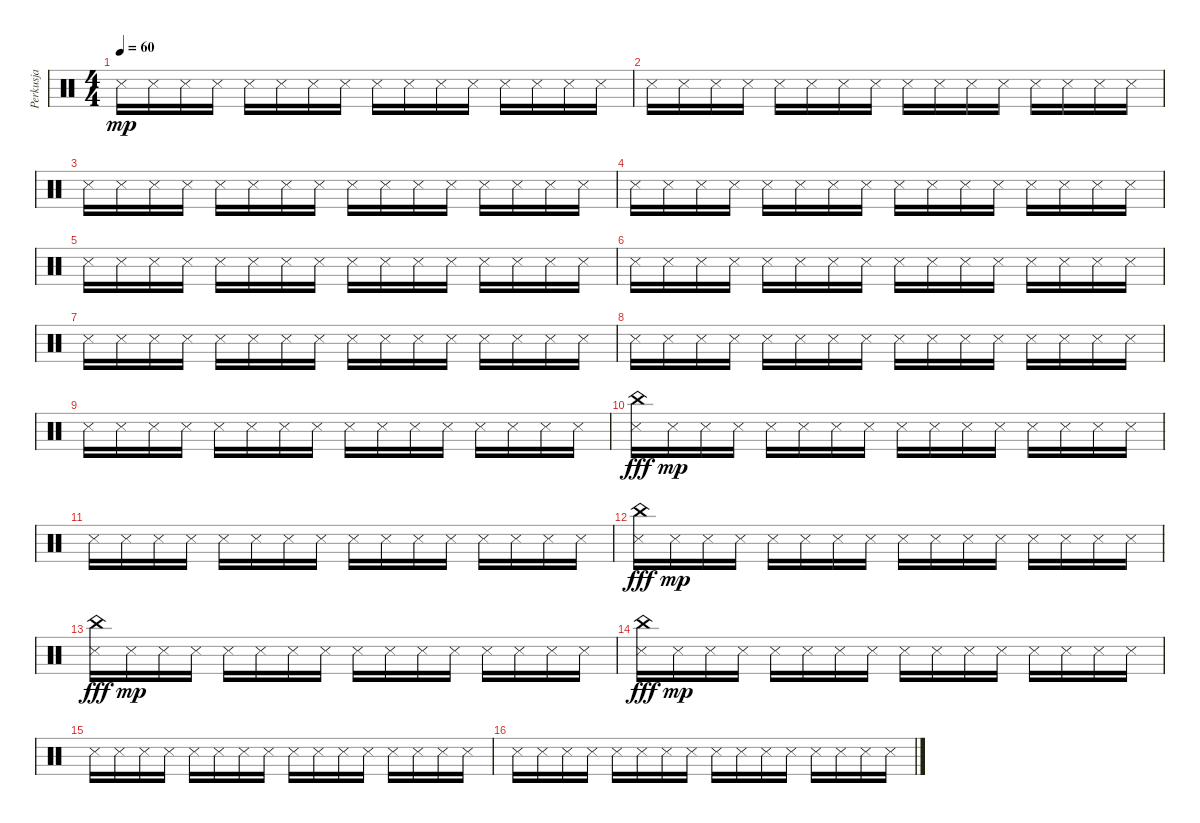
\track ("Perkusja" "Perkusja") {instrument percussion}
\staff {score}
\articulation defaults
\ts (4 4)
\tempo 60
\clef neutral
\ks c "Metronome (hit)".16{dy mp} "Snare (side stick) 3".16 "Metronome (hit)".16 "Snare (side stick) 3".16 "Metronome (hit)".16 "Snare (side stick) 3".16 "Metronome (hit)".16 "Snare (side stick) 3".16 "Metronome (hit)".16 "Snare (side stick) 3".16 "Metronome (hit)".16 "Snare (side stick) 3".16 "Metronome (hit)".16 "Snare (side stick) 3".16 "Metronome (hit)".16 "Snare (side stick) 3".16
|
"Metronome (hit)".16 "Snare (side stick) 3".16 "Metronome (hit)".16 "Snare (side stick) 3".16 "Metronome (hit)".16 "Snare (side stick) 3".16 "Metronome (hit)".16 "Snare (side stick) 3".16 "Metronome (hit)".16 "Snare (side stick) 3".16 "Metronome (hit)".16 "Snare (side stick) 3".16 "Metronome (hit)".16 "Snare (side stick) 3".16 "Metronome (hit)".16 "Snare (side stick) 3".16 |
"Metronome (hit)".16 "Snare (side stick) 3".16 "Metronome (hit)".16 "Snare (side stick) 3".16 "Metronome (hit)".16 "Snare (side stick) 3".16 "Metronome (hit)".16 "Snare (side stick) 3".16 "Metronome (hit)".16 "Snare (side stick) 3".16 "Metronome (hit)".16 "Snare (side stick) 3".16 "Metronome (hit)".16 "Snare (side stick) 3".16 "Metronome (hit)".16 "Snare (side stick) 3".16 |
"Metronome (hit)".16 "Snare (side stick) 3".16 "Metronome (hit)".16 "Snare (side stick) 3".16 "Metronome (hit)".16 "Snare (side stick) 3".16 "Metronome (hit)".16 "Snare (side stick) 3".16 "Metronome (hit)".16 "Snare (side stick) 3".16 "Metronome (hit)".16 "Snare (side stick) 3".16 "Metronome (hit)".16 "Snare (side stick) 3".16 "Metronome (hit)".16 "Snare (side stick) 3".16 |
"Metronome (hit)".16 "Snare (side stick) 3".16 "Metronome (hit)".16 "Snare (side stick) 3".16 "Metronome (hit)".16 "Snare (side stick) 3".16 "Metronome (hit)".16 "Snare (side stick) 3".16 "Metronome (hit)".16 "Snare (side stick) 3".16 "Metronome (hit)".16 "Snare (side stick) 3".16 "Metronome (hit)".16 "Snare (side stick) 3".16 "Metronome (hit)".16 "Snare (side stick) 3".16 |
"Metronome (hit)".16 "Snare (side stick) 3".16 "Metronome (hit)".16 "Snare (side stick) 3".16 "Metronome (hit)".16 "Snare (side stick) 3".16 "Metronome (hit)".16 "Snare (side stick) 3".16 "Metronome (hit)".16 "Snare (side stick) 3".16 "Metronome (hit)".16 "Snare (side stick) 3".16 "Metronome (hit)".16 "Snare (side stick) 3".16 "Metronome (hit)".16 "Snare (side stick) 3".16 |
"Metronome (hit)".16 "Snare (side stick) 3".16 "Metronome (hit)".16 "Snare (side stick) 3".16 "Metronome (hit)".16 "Snare (side stick) 3".16 "Metronome (hit)".16 "Snare (side stick) 3".16 "Metronome (hit)".16 "Snare (side stick) 3".16 "Metronome (hit)".16 "Snare (side stick) 3".16 "Metronome (hit)".16 "Snare (side stick) 3".16 "Metronome (hit)".16 "Snare (side stick) 3".16 |
"Metronome (hit)".16 "Snare (side stick) 3".16 "Metronome (hit)".16 "Snare (side stick) 3".16 "Metronome (hit)".16 "Snare (side stick) 3".16 "Metronome (hit)".16 "Snare (side stick) 3".16 "Metronome (hit)".16 "Snare (side stick) 3".16 "Metronome (hit)".16 "Snare (side stick) 3".16 "Metronome (hit)".16 "Snare (side stick) 3".16 "Metronome (hit)".16 "Snare (side stick) 3".16 |
"Metronome (hit)".16 "Snare (side stick) 3".16 "Metronome (hit)".16 "Snare (side stick) 3".16 "Metronome (hit)".16 "Snare (side stick) 3".16 "Metronome (hit)".16 "Snare (side stick) 3".16 "Metronome (hit)".16 "Snare (side stick) 3".16 "Metronome (hit)".16 "Snare (side stick) 3".16 "Metronome (hit)".16 "Snare (side stick) 3".16 "Metronome (hit)".16 "Snare (side stick) 3".16 |
("Metronome (hit)" "China (hit)").16{dy fff} "Snare (side stick) 3".16{dy mp} "Metronome (hit)".16 "Snare (side stick) 3".16 "Metronome (hit)".16 "Snare (side stick) 3".16 "Metronome (hit)".16 "Snare (side stick) 3".16 "Metronome (hit)".16 "Snare (side stick) 3".16 "Metronome (hit)".16 "Snare (side stick) 3".16 "Metronome (hit)".16 "Snare (side stick) 3".16 "Metronome (hit)".16 "Snare (side stick) 3".16 |
"Metronome (hit)".16 "Snare (side stick) 3".16 "Metronome (hit)".16 "Snare (side stick) 3".16 "Metronome (hit)".16 "Snare (side stick) 3".16 "Metronome (hit)".16 "Snare (side stick) 3".16 "Metronome (hit)".16 "Snare (side stick) 3".16 "Metronome (hit)".16 "Snare (side stick) 3".16 "Metronome (hit)".16 "Snare (side stick) 3".16 "Metronome (hit)".16 "Snare (side stick) 3".16 |
("Metronome (hit)" "China (hit)").16{dy fff} "Snare (side stick) 3".16{dy mp} "Metronome (hit)".16 "Snare (side stick) 3".16 "Metronome (hit)".16 "Snare (side stick) 3".16 "Metronome (hit)".16 "Snare (side stick) 3".16 "Metronome (hit)".16 "Snare (side stick) 3".16 "Metronome (hit)".16 "Snare (side stick) 3".16 "Metronome (hit)".16 "Snare (side stick) 3".16 "Metronome (hit)".16 "Snare (side stick) 3".16 |
("Metronome (hit)" "China (hit)").16{dy fff} "Snare (side stick) 3".16{dy mp} "Metronome (hit)".16 "Snare (side stick) 3".16 "Metronome (hit)".16 "Snare (side stick) 3".16 "Metronome (hit)".16 "Snare (side stick) 3".16 "Metronome (hit)".16 "Snare (side stick) 3".16 "Metronome (hit)".16 "Snare (side stick) 3".16 "Metronome (hit)".16 "Snare (side stick) 3".16 "Metronome (hit)".16 "Snare (side stick) 3".16 |
("Metronome (hit)" "China (hit)").16{dy fff} "Snare (side stick) 3".16{dy mp} "Metronome (hit)".16 "Snare (side stick) 3".16 "Metronome (hit)".16 "Snare (side stick) 3".16 "Metronome (hit)".16 "Snare (side stick) 3".16 "Metronome (hit)".16 "Snare (side stick) 3".16 "Metronome (hit)".16 "Snare (side stick) 3".16 "Metronome (hit)".16 "Snare (side stick) 3".16 "Metronome (hit)".16 "Snare (side stick) 3".16 |
"Metronome (hit)".16 "Snare (side stick) 3".16 "Metronome (hit)".16 "Snare (side stick) 3".16 "Metronome (hit)".16 "Snare (side stick) 3".16 "Metronome (hit)".16 "Snare (side stick) 3".16 "Metronome (hit)".16 "Snare (side stick) 3".16 "Metronome (hit)".16 "Snare (side stick) 3".16 "Metronome (hit)".16 "Snare (side stick) 3".16 "Metronome (hit)".16 "Snare (side stick) 3".16 |
"Metronome (hit)".16 "Snare (side stick) 3".16 "Metronome (hit)".16 "Snare (side stick) 3".16 "Metronome (hit)".16 "Snare (side stick) 3".16 "Metronome (hit)".16 "Snare (side stick) 3".16 "Metronome (hit)".16 "Snare (side stick) 3".16 "Metronome (hit)".16 "Snare (side stick) 3".16 "Metronome (hit)".16 "Snare (side stick) 3".16 "Metronome (hit)".16 "Snare (side stick) 3".16
